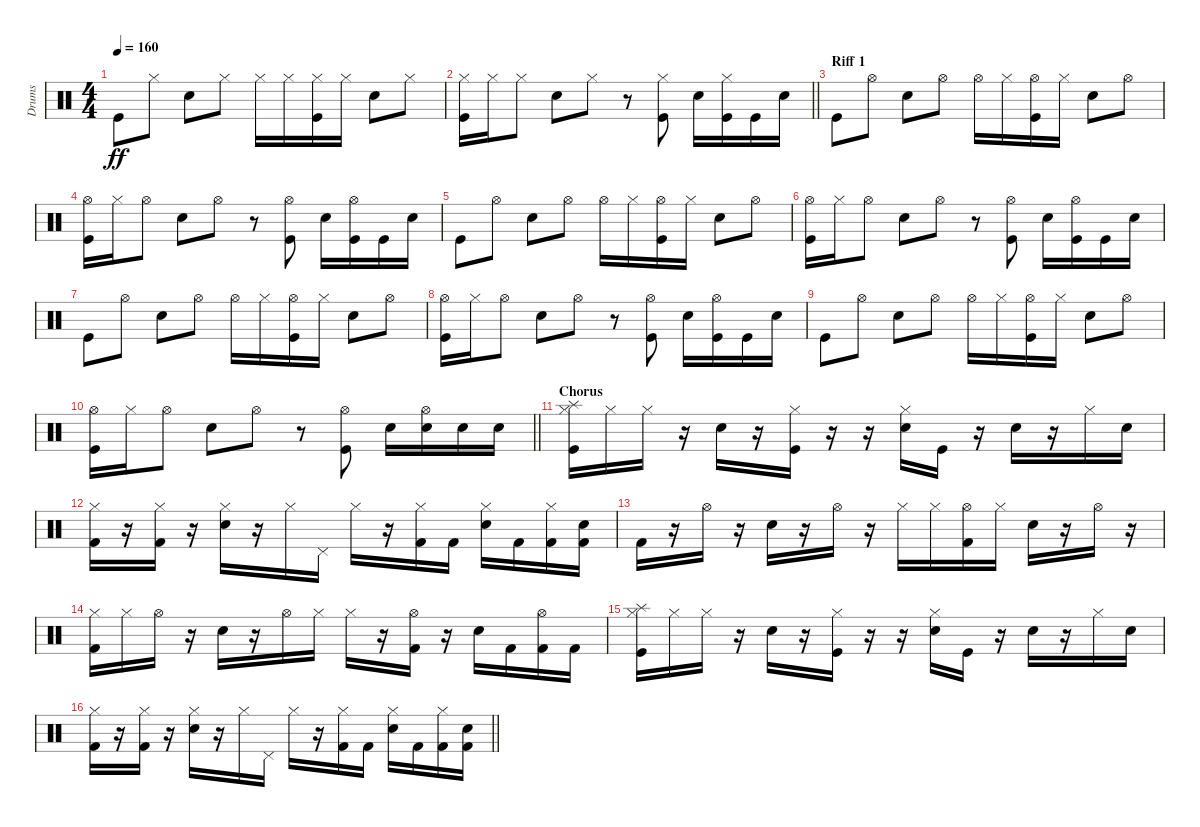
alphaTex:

\track ("Drums" "Drums") {instrument percussion}
\staff {score}
\articulation defaults
\ts (4 4)
\tempo 160
\clef neutral
\ks c "Kick (hit)".8{dy ff} "Hi-Hat (closed)".8 "Snare (hit) 2".8 "Hi-Hat (closed)".8 "Hi-Hat (closed)".16 "Hi-Hat (closed)".16
("Kick (hit)" "Hi-Hat (closed)").16 "Hi-Hat (closed)".16 "Snare (hit) 2".8 "Hi-Hat (closed)".8 |
\barLineRight lightlight
("Kick (hit)" "Hi-Hat (closed)").16 "Hi-Hat (closed)".16 "Hi-Hat (closed)".8 "Snare (hit) 2".8 "Hi-Hat (closed)".8 r.8 ("Kick (hit)" "Hi-Hat (closed)").8 "Snare (hit) 2".16 ("Kick (hit)" "Hi-Hat (closed)").16 "Kick (hit)".16 "Snare (hit) 2".16 |
\section ("" "Riff 1")
"Kick (hit)".8 "Hi-Hat (open)".8 "Snare (hit) 2".8 "Hi-Hat (open)".8 "Hi-Hat (open)".16 "Hi-Hat (closed)".16 ("Kick (hit)" "Hi-Hat (open)").16 "Hi-Hat (closed)".16 "Snare (hit) 2".8 "Hi-Hat (open)".8 |
("Kick (hit)" "Hi-Hat (open)").16 "Hi-Hat (closed)".16 "Hi-Hat (open)".8 "Snare (hit) 2".8 "Hi-Hat (open)".8 r.8 ("Kick (hit)" "Hi-Hat (open)").8 "Snare (hit) 2".16 ("Kick (hit)" "Hi-Hat (open)").16 "Kick (hit)".16 "Snare (hit) 2".16 |
"Kick (hit)".8 "Hi-Hat (open)".8 "Snare (hit) 2".8 "Hi-Hat (open)".8 "Hi-Hat (open)".16 "Hi-Hat (closed)".16 ("Kick (hit)" "Hi-Hat (open)").16 "Hi-Hat (closed)".16 "Snare (hit) 2".8 "Hi-Hat (open)".8 |
("Kick (hit)" "Hi-Hat (open)").16 "Hi-Hat (closed)".16 "Hi-Hat (open)".8 "Snare (hit) 2".8 "Hi-Hat (open)".8 r.8 ("Kick (hit)" "Hi-Hat (open)").8 "Snare (hit) 2".16 ("Kick (hit)" "Hi-Hat (open)").16 "Kick (hit)".16 "Snare (hit) 2".16 |
"Kick (hit)".8 "Hi-Hat (open)".8 "Snare (hit) 2".8 "Hi-Hat (open)".8 "Hi-Hat (open)".16 "Hi-Hat (closed)".16 ("Kick (hit)" "Hi-Hat (open)").16 "Hi-Hat (closed)".16 "Snare (hit) 2".8 "Hi-Hat (open)".8 |
("Kick (hit)" "Hi-Hat (open)").16 "Hi-Hat (closed)".16 "Hi-Hat (open)".8 "Snare (hit) 2".8 "Hi-Hat (open)".8 r.8 ("Kick (hit)" "Hi-Hat (open)").8 "Snare (hit) 2".16 ("Kick (hit)" "Hi-Hat (open)").16 "Kick (hit)".16 "Snare (hit) 2".16 |
"Kick (hit)".8 "Hi-Hat (open)".8 "Snare (hit) 2".8 "Hi-Hat (open)".8 "Hi-Hat (open)".16 "Hi-Hat (closed)".16 ("Kick (hit)" "Hi-Hat (open)").16 "Hi-Hat (closed)".16 "Snare (hit) 2".8 "Hi-Hat (open)".8 |
\barLineRight lightlight
("Kick (hit)" "Hi-Hat (open)").16 "Hi-Hat (closed)".16 "Hi-Hat (open)".8 "Snare (hit) 2".8 "Hi-Hat (open)".8 r.8 ("Kick (hit)" "Hi-Hat (open)").8 "Snare (hit) 2".16 ("Snare (hit) 2" "Hi-Hat (open)").16 "Snare (hit) 2".16 "Snare (hit) 2".16 |
\section ("" "Chorus")
("Kick (hit)" "Hi-Hat (closed)" "Splash (hit)").16 "Hi-Hat (closed)".16 "Hi-Hat (closed)".16 r.16 "Snare (hit) 2".16 r.16 ("Kick (hit)" "Hi-Hat (closed)").16 r.16 r.16 ("Snare (hit) 2" "Hi-Hat (closed)").16 "Kick (hit)".16 r.16 "Snare (hit) 2".16 r.16 "Hi-Hat (closed)".16 "Snare (hit) 2".16 |
("Kick (hit) 2" "Hi-Hat (closed)").16 r.16 ("Kick (hit) 2" "Hi-Hat (closed)").16 r.16 ("Snare (hit) 2" "Hi-Hat (closed)").16 r.16 "Hi-Hat (closed)".16 "Pedal Hi-Hat (hit)".16 "Hi-Hat (closed)".16 r.16 ("Kick (hit) 2" "Hi-Hat (closed)").16 "Kick (hit) 2".16 ("Snare (hit) 2" "Hi-Hat (closed)").16 "Kick (hit) 2".16 ("Kick (hit) 2" "Hi-Hat (closed)").16 ("Kick (hit) 2" "Snare (hit) 2").16 |
"Kick (hit) 2".16 r.16 "Hi-Hat (open)".16 r.16 "Snare (hit) 2".16 r.16 "Hi-Hat (open)".16 r.16 "Hi-Hat (closed)".16 "Hi-Hat (closed)".16 ("Kick (hit) 2" "Hi-Hat (open)").16 "Hi-Hat (closed)".16 "Snare (hit) 2".16 r.16 "Hi-Hat (open)".16 r.16 |
("Kick (hit) 2" "Hi-Hat (closed)").16 "Hi-Hat (closed)".16 "Hi-Hat (open)".16 r.16 "Snare (hit) 2".16 r.16 "Hi-Hat (open)".16 "Hi-Hat (closed)".16 "Hi-Hat (closed)".16 r.16 ("Kick (hit) 2" "Hi-Hat (open)").16 r.16 "Snare (hit) 2".16 "Kick (hit) 2".16 ("Kick (hit) 2" "Hi-Hat (open)").16 "Kick (hit) 2".16 |
("Kick (hit)" "Hi-Hat (closed)" "Splash (hit)").16 "Hi-Hat (closed)".16 "Hi-Hat (closed)".16 r.16 "Snare (hit) 2".16 r.16 ("Kick (hit)" "Hi-Hat (closed)").16 r.16 r.16 ("Snare (hit) 2" "Hi-Hat (closed)").16 "Kick (hit)".16 r.16 "Snare (hit) 2".16 r.16 "Hi-Hat (closed)".16 "Snare (hit) 2".16 |
\barLineRight lightlight
("Kick (hit) 2" "Hi-Hat (closed)").16 r.16 ("Kick (hit) 2" "Hi-Hat (closed)").16 r.16 ("Snare (hit) 2" "Hi-Hat (closed)").16 r.16 "Hi-Hat (closed)".16 "Pedal Hi-Hat (hit)".16 "Hi-Hat (closed)".16 r.16 ("Kick (hit) 2" "Hi-Hat (closed)").16 "Kick (hit) 2".16 ("Snare (hit) 2" "Hi-Hat (closed)").16 "Kick (hit) 2".16 ("Kick (hit) 2" "Hi-Hat (closed)").16 ("Kick (hit) 2" "Snare (hit) 2").16
